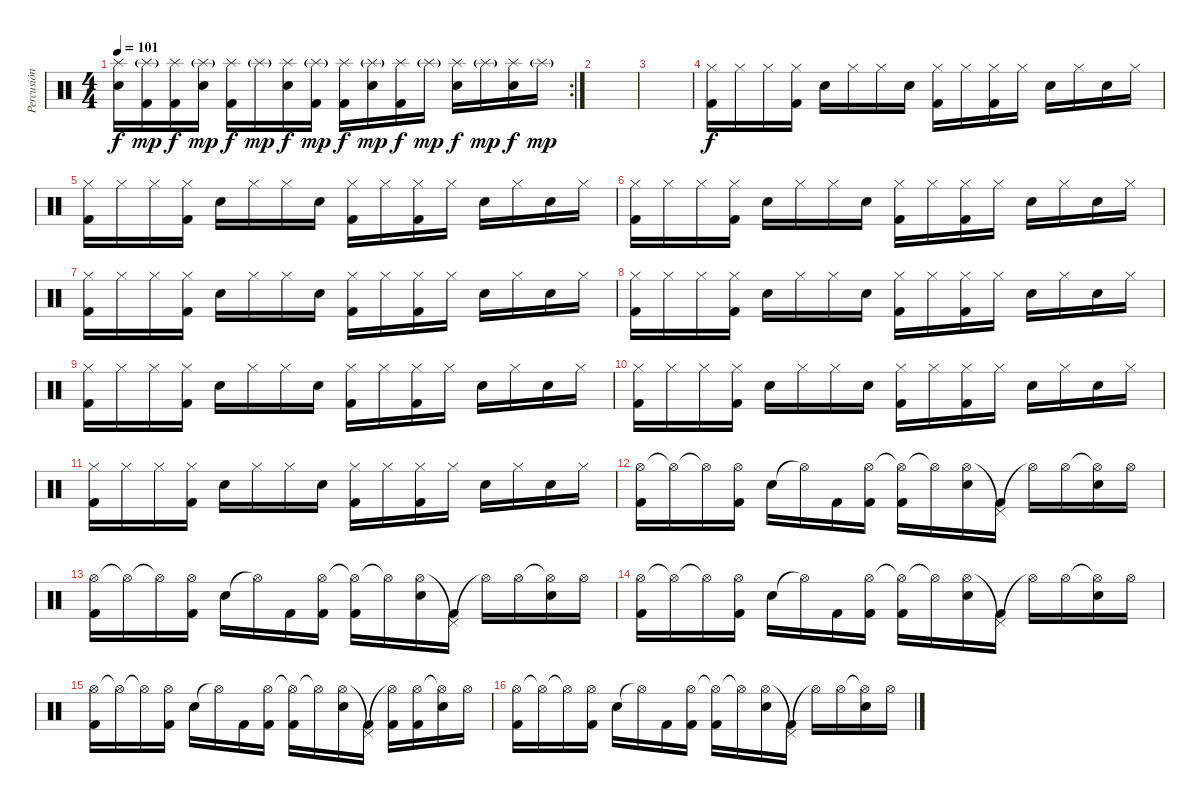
\track ("Percusión" "Percusión") {instrument percussion}
\staff {score}
\articulation defaults
\rc 2
\ts (4 4)
\tempo 101
\clef neutral
\ks c
("Splash (hit)" "Snare (hit) 2").16{dy f} ("Splash (hit)"{g} "Kick (hit) 2").16{dy mp} ("Splash (hit)" "Kick (hit) 2").16{dy f} ("Splash (hit)"{g} "Snare (hit) 2").16{dy mp} ("Splash (hit)" "Kick (hit) 2").16{dy f} "Splash (hit)"{g}.16{dy mp} ("Splash (hit)" "Snare (hit) 2").16{dy f} ("Splash (hit)"{g} "Kick (hit) 2").16{dy mp} ("Splash (hit)" "Kick (hit) 2").16{dy f} ("Splash (hit)"{g} "Snare (hit) 2").16{dy mp} ("Splash (hit)" "Kick (hit) 2").16{dy f} "Splash (hit)"{g}.16{dy mp} ("Splash (hit)" "Snare (hit) 2").16{dy f} "Splash (hit)"{g}.16{dy mp} ("Splash (hit)" "Snare (hit) 2").16{dy f} "Splash (hit)"{g}.16{dy mp} |
|
|
("Hi-Hat (closed)" "Kick (hit) 2").16{dy f} "Hi-Hat (closed)".16 "Hi-Hat (closed)".16 ("Hi-Hat (closed)" "Kick (hit) 2").16 "Snare (hit) 2".16 "Hi-Hat (closed)".16 "Hi-Hat (closed)".16 "Snare (hit) 2".16 ("Hi-Hat (closed)" "Kick (hit) 2").16 "Hi-Hat (closed)".16 ("Hi-Hat (closed)" "Kick (hit) 2").16 "Hi-Hat (closed)".16 "Snare (hit) 2".16 "Hi-Hat (closed)".16 "Snare (hit) 2".16 "Hi-Hat (closed)".16 |
("Hi-Hat (closed)" "Kick (hit) 2").16 "Hi-Hat (closed)".16 "Hi-Hat (closed)".16 ("Hi-Hat (closed)" "Kick (hit) 2").16 "Snare (hit) 2".16 "Hi-Hat (closed)".16 "Hi-Hat (closed)".16 "Snare (hit) 2".16 ("Hi-Hat (closed)" "Kick (hit) 2").16 "Hi-Hat (closed)".16 ("Hi-Hat (closed)" "Kick (hit) 2").16 "Hi-Hat (closed)".16 "Snare (hit) 2".16 "Hi-Hat (closed)".16 "Snare (hit) 2".16 "Hi-Hat (closed)".16 |
("Hi-Hat (closed)" "Kick (hit) 2").16 "Hi-Hat (closed)".16 "Hi-Hat (closed)".16 ("Hi-Hat (closed)" "Kick (hit) 2").16 "Snare (hit) 2".16 "Hi-Hat (closed)".16 "Hi-Hat (closed)".16 "Snare (hit) 2".16 ("Hi-Hat (closed)" "Kick (hit) 2").16 "Hi-Hat (closed)".16 ("Hi-Hat (closed)" "Kick (hit) 2").16 "Hi-Hat (closed)".16 "Snare (hit) 2".16 "Hi-Hat (closed)".16 "Snare (hit) 2".16 "Hi-Hat (closed)".16 |
("Hi-Hat (closed)" "Kick (hit) 2").16 "Hi-Hat (closed)".16 "Hi-Hat (closed)".16 ("Hi-Hat (closed)" "Kick (hit) 2").16 "Snare (hit) 2".16 "Hi-Hat (closed)".16 "Hi-Hat (closed)".16 "Snare (hit) 2".16 ("Hi-Hat (closed)" "Kick (hit) 2").16 "Hi-Hat (closed)".16 ("Hi-Hat (closed)" "Kick (hit) 2").16 "Hi-Hat (closed)".16 "Snare (hit) 2".16 "Hi-Hat (closed)".16 "Snare (hit) 2".16 "Hi-Hat (closed)".16 |
("Hi-Hat (closed)" "Kick (hit) 2").16 "Hi-Hat (closed)".16 "Hi-Hat (closed)".16 ("Hi-Hat (closed)" "Kick (hit) 2").16 "Snare (hit) 2".16 "Hi-Hat (closed)".16 "Hi-Hat (closed)".16 "Snare (hit) 2".16 ("Hi-Hat (closed)" "Kick (hit) 2").16 "Hi-Hat (closed)".16 ("Hi-Hat (closed)" "Kick (hit) 2").16 "Hi-Hat (closed)".16 "Snare (hit) 2".16 "Hi-Hat (closed)".16 "Snare (hit) 2".16 "Hi-Hat (closed)".16 |
("Hi-Hat (closed)" "Kick (hit) 2").16 "Hi-Hat (closed)".16 "Hi-Hat (closed)".16 ("Hi-Hat (closed)" "Kick (hit) 2").16 "Snare (hit) 2".16 "Hi-Hat (closed)".16 "Hi-Hat (closed)".16 "Snare (hit) 2".16 ("Hi-Hat (closed)" "Kick (hit) 2").16 "Hi-Hat (closed)".16 ("Hi-Hat (closed)" "Kick (hit) 2").16 "Hi-Hat (closed)".16 "Snare (hit) 2".16 "Hi-Hat (closed)".16 "Snare (hit) 2".16 "Hi-Hat (closed)".16 |
("Hi-Hat (closed)" "Kick (hit) 2").16 "Hi-Hat (closed)".16 "Hi-Hat (closed)".16 ("Hi-Hat (closed)" "Kick (hit) 2").16 "Snare (hit) 2".16 "Hi-Hat (closed)".16 "Hi-Hat (closed)".16 "Snare (hit) 2".16 ("Hi-Hat (closed)" "Kick (hit) 2").16 "Hi-Hat (closed)".16 ("Hi-Hat (closed)" "Kick (hit) 2").16 "Hi-Hat (closed)".16 "Snare (hit) 2".16 "Hi-Hat (closed)".16 "Snare (hit) 2".16 "Hi-Hat (closed)".16 |
("Hi-Hat (closed)" "Kick (hit) 2").16 "Hi-Hat (closed)".16 "Hi-Hat (closed)".16 ("Hi-Hat (closed)" "Kick (hit) 2").16 "Snare (hit) 2".16 "Hi-Hat (closed)".16 "Hi-Hat (closed)".16 "Snare (hit) 2".16 ("Hi-Hat (closed)" "Kick (hit) 2").16 "Hi-Hat (closed)".16 ("Hi-Hat (closed)" "Kick (hit) 2").16 "Hi-Hat (closed)".16 "Snare (hit) 2".16 "Hi-Hat (closed)".16 "Snare (hit) 2".16 "Hi-Hat (closed)".16 |
("Hi-Hat (open)" "Kick (hit) 2").16 "Hi-Hat (open)"{t}.16 "Hi-Hat (open)"{t}.16 ("Hi-Hat (open)" "Kick (hit) 2").16 "Snare (hit) 2".16 "Hi-Hat (open)"{t}.16 "Kick (hit) 2".16 ("Hi-Hat (open)" "Kick (hit) 2").16 ("Hi-Hat (open)"{t} "Kick (hit) 2").16 "Hi-Hat (open)"{t}.16 ("Hi-Hat (open)" "Snare (hit) 2").16 ("Pedal Hi-Hat (hit)"{t} "Kick (hit) 2").16 "Hi-Hat (open)"{t}.16 "Hi-Hat (open)".16 ("Hi-Hat (open)"{t} "Snare (hit) 2").16 "Hi-Hat (open)".16 |
("Hi-Hat (open)" "Kick (hit) 2").16 "Hi-Hat (open)"{t}.16 "Hi-Hat (open)"{t}.16 ("Hi-Hat (open)" "Kick (hit) 2").16 "Snare (hit) 2".16 "Hi-Hat (open)"{t}.16 "Kick (hit) 2".16 ("Hi-Hat (open)" "Kick (hit) 2").16 ("Hi-Hat (open)"{t} "Kick (hit) 2").16 "Hi-Hat (open)"{t}.16 ("Hi-Hat (open)" "Snare (hit) 2").16 ("Pedal Hi-Hat (hit)"{t} "Kick (hit) 2").16 "Hi-Hat (open)"{t}.16 "Hi-Hat (open)".16 ("Hi-Hat (open)"{t} "Snare (hit) 2").16 "Hi-Hat (open)".16 |
("Hi-Hat (open)" "Kick (hit) 2").16 "Hi-Hat (open)"{t}.16 "Hi-Hat (open)"{t}.16 ("Hi-Hat (open)" "Kick (hit) 2").16 "Snare (hit) 2".16 "Hi-Hat (open)"{t}.16 "Kick (hit) 2".16 ("Hi-Hat (open)" "Kick (hit) 2").16 ("Hi-Hat (open)"{t} "Kick (hit) 2").16 "Hi-Hat (open)"{t}.16 ("Hi-Hat (open)" "Snare (hit) 2").16 ("Pedal Hi-Hat (hit)"{t} "Kick (hit) 2").16 "Hi-Hat (open)"{t}.16 "Hi-Hat (open)".16 ("Hi-Hat (open)"{t} "Snare (hit) 2").16 "Hi-Hat (open)".16 |
("Hi-Hat (open)" "Kick (hit) 2").16 "Hi-Hat (open)"{t}.16 "Hi-Hat (open)"{t}.16 ("Hi-Hat (open)" "Kick (hit) 2").16 "Snare (hit) 2".16 "Hi-Hat (open)"{t}.16 "Kick (hit) 2".16 ("Hi-Hat (open)" "Kick (hit) 2").16 ("Hi-Hat (open)"{t} "Kick (hit) 2").16 "Hi-Hat (open)"{t}.16 ("Hi-Hat (open)" "Snare (hit) 2").16 ("Pedal Hi-Hat (hit)"{t} "Kick (hit) 2").16 ("Hi-Hat (open)"{t} "Kick (hit) 2").16 ("Hi-Hat (open)" "Kick (hit) 2").16 ("Hi-Hat (open)"{t} "Snare (hit) 2").16 "Hi-Hat (open)".16 |
("Hi-Hat (open)" "Kick (hit) 2").16 "Hi-Hat (open)"{t}.16 "Hi-Hat (open)"{t}.16 ("Hi-Hat (open)" "Kick (hit) 2").16 "Snare (hit) 2".16 "Hi-Hat (open)"{t}.16 "Kick (hit) 2".16 ("Hi-Hat (open)" "Kick (hit) 2").16 ("Hi-Hat (open)"{t} "Kick (hit) 2").16 "Hi-Hat (open)"{t}.16 ("Hi-Hat (open)" "Snare (hit) 2").16 ("Pedal Hi-Hat (hit)"{t} "Kick (hit) 2").16 "Hi-Hat (open)"{t}.16 "Hi-Hat (open)".16 ("Hi-Hat (open)"{t} "Snare (hit) 2").16 "Hi-Hat (open)".16
